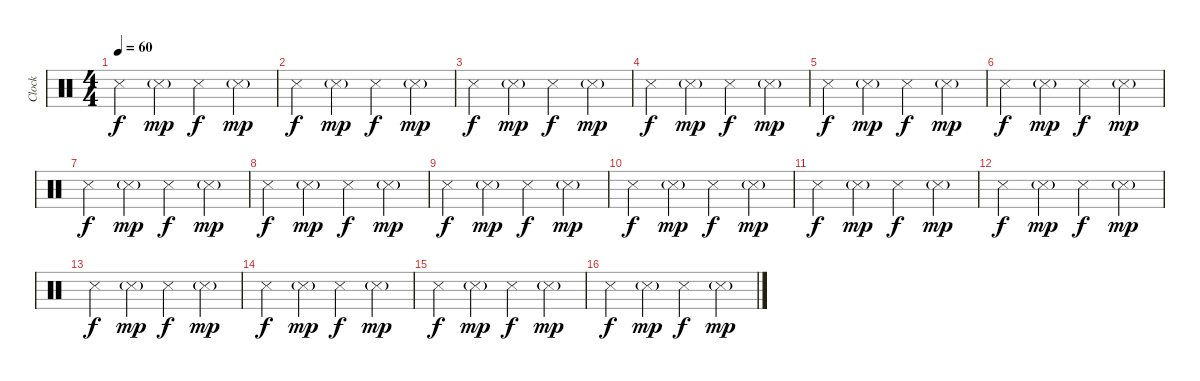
\track ("Clock" "Clock") {instrument percussion}
\staff {score}
\articulation defaults
\ts (4 4)
\tempo 60
\clef neutral
\ks c "Metronome (hit)".4{dy f volume 12} "Metronome (hit)"{g}.4{dy mp volume 15} "Metronome (hit)".4{dy f} "Metronome (hit)"{g}.4{dy mp}
|
"Metronome (hit)".4{dy f} "Metronome (hit)"{g}.4{dy mp} "Metronome (hit)".4{dy f} "Metronome (hit)"{g}.4{dy mp} |
"Metronome (hit)".4{dy f} "Metronome (hit)"{g}.4{dy mp} "Metronome (hit)".4{dy f} "Metronome (hit)"{g}.4{dy mp} |
"Metronome (hit)".4{dy f} "Metronome (hit)"{g}.4{dy mp} "Metronome (hit)".4{dy f} "Metronome (hit)"{g}.4{dy mp} |
"Metronome (hit)".4{dy f} "Metronome (hit)"{g}.4{dy mp} "Metronome (hit)".4{dy f} "Metronome (hit)"{g}.4{dy mp} |
"Metronome (hit)".4{dy f} "Metronome (hit)"{g}.4{dy mp} "Metronome (hit)".4{dy f} "Metronome (hit)"{g}.4{dy mp} |
"Metronome (hit)".4{dy f} "Metronome (hit)"{g}.4{dy mp} "Metronome (hit)".4{dy f} "Metronome (hit)"{g}.4{dy mp} |
"Metronome (hit)".4{dy f} "Metronome (hit)"{g}.4{dy mp} "Metronome (hit)".4{dy f} "Metronome (hit)"{g}.4{dy mp} |
"Metronome (hit)".4{dy f} "Metronome (hit)"{g}.4{dy mp} "Metronome (hit)".4{dy f} "Metronome (hit)"{g}.4{dy mp} |
"Metronome (hit)".4{dy f} "Metronome (hit)"{g}.4{dy mp} "Metronome (hit)".4{dy f} "Metronome (hit)"{g}.4{dy mp} |
"Metronome (hit)".4{dy f} "Metronome (hit)"{g}.4{dy mp} "Metronome (hit)".4{dy f} "Metronome (hit)"{g}.4{dy mp} |
"Metronome (hit)".4{dy f} "Metronome (hit)"{g}.4{dy mp} "Metronome (hit)".4{dy f} "Metronome (hit)"{g}.4{dy mp} |
"Metronome (hit)".4{dy f} "Metronome (hit)"{g}.4{dy mp} "Metronome (hit)".4{dy f} "Metronome (hit)"{g}.4{dy mp} |
"Metronome (hit)".4{dy f} "Metronome (hit)"{g}.4{dy mp} "Metronome (hit)".4{dy f} "Metronome (hit)"{g}.4{dy mp} |
"Metronome (hit)".4{dy f} "Metronome (hit)"{g}.4{dy mp} "Metronome (hit)".4{dy f} "Metronome (hit)"{g}.4{dy mp} |
"Metronome (hit)".4{dy f} "Metronome (hit)"{g}.4{dy mp} "Metronome (hit)".4{dy f} "Metronome (hit)"{g}.4{dy mp}
